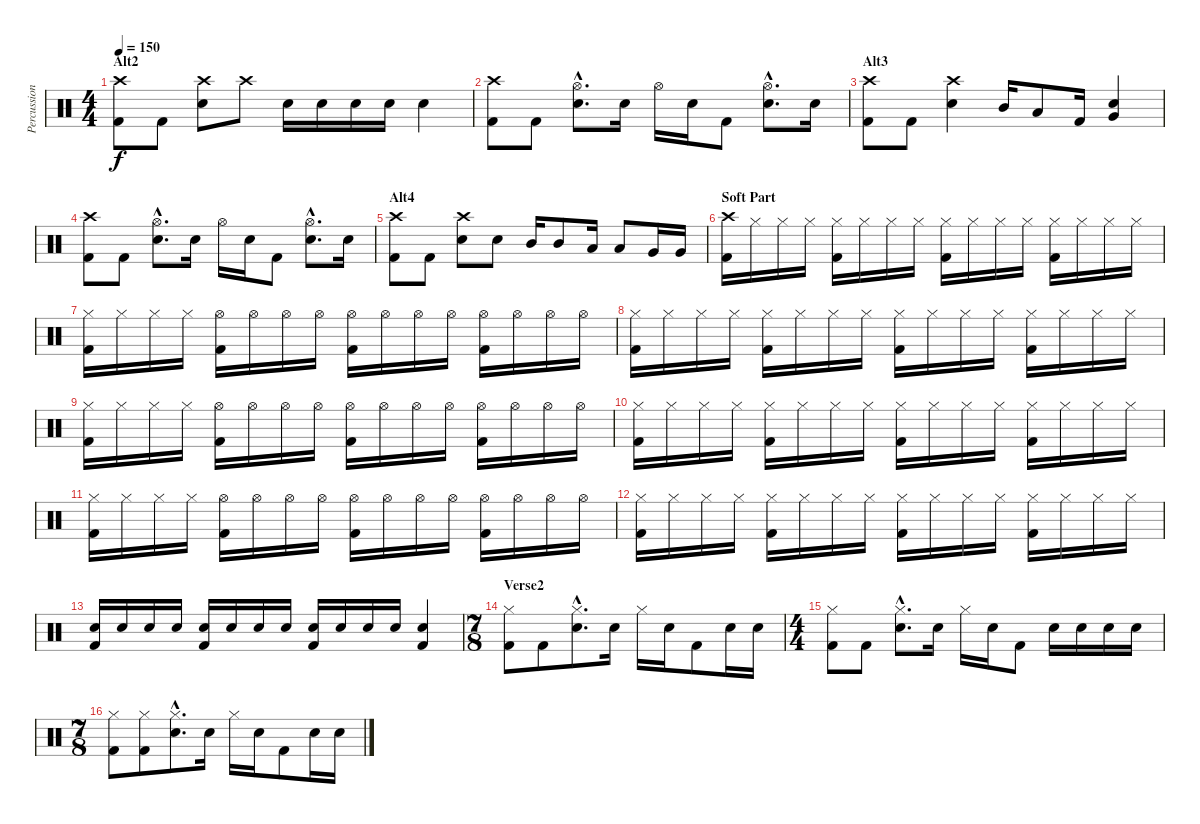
\track ("Percussion" "Percussion") {instrument percussion}
\staff {score}
\articulation defaults
\ts (4 4)
\section ("" "Alt2")
\tempo 150
\clef neutral
\ks c
("Crash high (hit)" "Kick (hit) 2").8{dy f} "Kick (hit) 2".8 ("Crash high (hit)" "Electric Snare (hit)").8 "Crash high (hit)".8 "Electric Snare (hit)".16 "Electric Snare (hit)".16 "Electric Snare (hit)".16 "Electric Snare (hit)".16 "Electric Snare (hit)".4 |
("Crash high (hit)" "Kick (hit) 2").8 "Kick (hit) 2".8 ("Hi-Hat (open)"{hac} "Electric Snare (hit)"{hac}).8{d} "Electric Snare (hit)".16 "Hi-Hat (open)".16 "Electric Snare (hit)".16 "Kick (hit) 2".8 ("Hi-Hat (open)"{hac} "Electric Snare (hit)"{hac}).8{d} "Electric Snare (hit)".16 |
\section ("" "Alt3")
("Crash high (hit)" "Kick (hit) 2").8 "Kick (hit) 2".8 ("Crash high (hit)" "Electric Snare (hit)").4 "Mid Tom (hit)".16 "Low Tom (hit)".8 "Kick (hit) 2".16 ("Very Low Tom (hit)" "Electric Snare (hit)").4 |
("Crash high (hit)" "Kick (hit) 2").8 "Kick (hit) 2".8 ("Hi-Hat (open)"{hac} "Electric Snare (hit)"{hac}).8{d} "Electric Snare (hit)".16 "Hi-Hat (open)".16 "Electric Snare (hit)".16 "Kick (hit) 2".8 ("Hi-Hat (open)"{hac} "Electric Snare (hit)"{hac}).8{d} "Electric Snare (hit)".16 |
\section ("" "Alt4")
("Crash high (hit)" "Kick (hit) 2").8 "Kick (hit) 2".8 ("Crash high (hit)" "Electric Snare (hit)").8 "Electric Snare (hit)".8 "Mid Tom (hit)".16 "Mid Tom (hit)".8 "Low Tom (hit)".16 "Low Tom (hit)".8 "Very Low Tom (hit)".16 "Very Low Tom (hit)".16 |
\section ("" "Soft Part")
("Crash high (hit)" "Kick (hit) 2").16 "Hi-Hat (closed)".16 "Hi-Hat (closed)".16 "Hi-Hat (closed)".16 ("Hi-Hat (closed)" "Kick (hit) 2").16 "Hi-Hat (closed)".16 "Hi-Hat (closed)".16 "Hi-Hat (closed)".16 ("Hi-Hat (closed)" "Kick (hit) 2").16 "Hi-Hat (closed)".16 "Hi-Hat (closed)".16 "Hi-Hat (closed)".16 ("Hi-Hat (closed)" "Kick (hit) 2").16 "Hi-Hat (closed)".16 "Hi-Hat (closed)".16 "Hi-Hat (closed)".16 |
("Hi-Hat (closed)" "Kick (hit) 2").16 "Hi-Hat (closed)".16 "Hi-Hat (closed)".16 "Hi-Hat (closed)".16 ("Hi-Hat (open)" "Kick (hit) 2").16 "Hi-Hat (open)".16 "Hi-Hat (open)".16 "Hi-Hat (open)".16 ("Hi-Hat (open)" "Kick (hit) 2").16 "Hi-Hat (open)".16 "Hi-Hat (open)".16 "Hi-Hat (open)".16 ("Hi-Hat (open)" "Kick (hit) 2").16 "Hi-Hat (open)".16 "Hi-Hat (open)".16 "Hi-Hat (open)".16 |
("Hi-Hat (closed)" "Kick (hit) 2").16 "Hi-Hat (closed)".16 "Hi-Hat (closed)".16 "Hi-Hat (closed)".16 ("Hi-Hat (closed)" "Kick (hit) 2").16 "Hi-Hat (closed)".16 "Hi-Hat (closed)".16 "Hi-Hat (closed)".16 ("Hi-Hat (closed)" "Kick (hit) 2").16 "Hi-Hat (closed)".16 "Hi-Hat (closed)".16 "Hi-Hat (closed)".16 ("Hi-Hat (closed)" "Kick (hit) 2").16 "Hi-Hat (closed)".16 "Hi-Hat (closed)".16 "Hi-Hat (closed)".16 |
("Hi-Hat (closed)" "Kick (hit) 2").16 "Hi-Hat (closed)".16 "Hi-Hat (closed)".16 "Hi-Hat (closed)".16 ("Hi-Hat (open)" "Kick (hit) 2").16 "Hi-Hat (open)".16 "Hi-Hat (open)".16 "Hi-Hat (open)".16 ("Hi-Hat (open)" "Kick (hit) 2").16 "Hi-Hat (open)".16 "Hi-Hat (open)".16 "Hi-Hat (open)".16 ("Hi-Hat (open)" "Kick (hit) 2").16 "Hi-Hat (open)".16 "Hi-Hat (open)".16 "Hi-Hat (open)".16 |
("Hi-Hat (closed)" "Kick (hit) 2").16 "Hi-Hat (closed)".16 "Hi-Hat (closed)".16 "Hi-Hat (closed)".16 ("Hi-Hat (closed)" "Kick (hit) 2").16 "Hi-Hat (closed)".16 "Hi-Hat (closed)".16 "Hi-Hat (closed)".16 ("Hi-Hat (closed)" "Kick (hit) 2").16 "Hi-Hat (closed)".16 "Hi-Hat (closed)".16 "Hi-Hat (closed)".16 ("Hi-Hat (closed)" "Kick (hit) 2").16 "Hi-Hat (closed)".16 "Hi-Hat (closed)".16 "Hi-Hat (closed)".16 |
("Hi-Hat (closed)" "Kick (hit) 2").16 "Hi-Hat (closed)".16 "Hi-Hat (closed)".16 "Hi-Hat (closed)".16 ("Hi-Hat (open)" "Kick (hit) 2").16 "Hi-Hat (open)".16 "Hi-Hat (open)".16 "Hi-Hat (open)".16 ("Hi-Hat (open)" "Kick (hit) 2").16 "Hi-Hat (open)".16 "Hi-Hat (open)".16 "Hi-Hat (open)".16 ("Hi-Hat (open)" "Kick (hit) 2").16 "Hi-Hat (open)".16 "Hi-Hat (open)".16 "Hi-Hat (open)".16 |
("Hi-Hat (closed)" "Kick (hit) 2").16 "Hi-Hat (closed)".16 "Hi-Hat (closed)".16 "Hi-Hat (closed)".16 ("Hi-Hat (closed)" "Kick (hit) 2").16 "Hi-Hat (closed)".16 "Hi-Hat (closed)".16 "Hi-Hat (closed)".16 ("Hi-Hat (closed)" "Kick (hit) 2").16 "Hi-Hat (closed)".16 "Hi-Hat (closed)".16 "Hi-Hat (closed)".16 ("Hi-Hat (closed)" "Kick (hit) 2").16 "Hi-Hat (closed)".16 "Hi-Hat (closed)".16 "Hi-Hat (closed)".16 |
("Electric Snare (hit)" "Kick (hit) 2").16 "Electric Snare (hit)".16 "Electric Snare (hit)".16 "Electric Snare (hit)".16 ("Electric Snare (hit)" "Kick (hit) 2").16 "Electric Snare (hit)".16 "Electric Snare (hit)".16 "Electric Snare (hit)".16 ("Electric Snare (hit)" "Kick (hit) 2").16 "Electric Snare (hit)".16 "Electric Snare (hit)".16 "Electric Snare (hit)".16 ("Electric Snare (hit)" "Kick (hit) 2").4 |
\ts (7 8)
\section ("" "Verse2")
("Hi-Hat (closed)" "Kick (hit) 2").8 "Kick (hit) 2".8 ("Hi-Hat (closed)"{hac} "Electric Snare (hit)"{hac}).8{d} "Electric Snare (hit)".16 "Hi-Hat (closed)".16 "Electric Snare (hit)".16 "Kick (hit) 2".8 "Electric Snare (hit)".16 "Electric Snare (hit)".16 |
\ts (4 4)
("Hi-Hat (closed)" "Kick (hit) 2").8 "Kick (hit) 2".8 ("Hi-Hat (closed)"{hac} "Electric Snare (hit)"{hac}).8{d} "Electric Snare (hit)".16 "Hi-Hat (closed)".16 "Electric Snare (hit)".16 "Kick (hit) 2".8 "Electric Snare (hit)".16 "Electric Snare (hit)".16 "Electric Snare (hit)".16 "Electric Snare (hit)".16 |
\ts (7 8)
("Hi-Hat (closed)" "Kick (hit) 2").8 ("Hi-Hat (closed)" "Kick (hit) 2").8 ("Hi-Hat (closed)"{hac} "Electric Snare (hit)"{hac}).8{d} "Electric Snare (hit)".16 "Hi-Hat (closed)".16 "Electric Snare (hit)".16 "Kick (hit) 2".8 "Electric Snare (hit)".16 "Electric Snare (hit)".16
